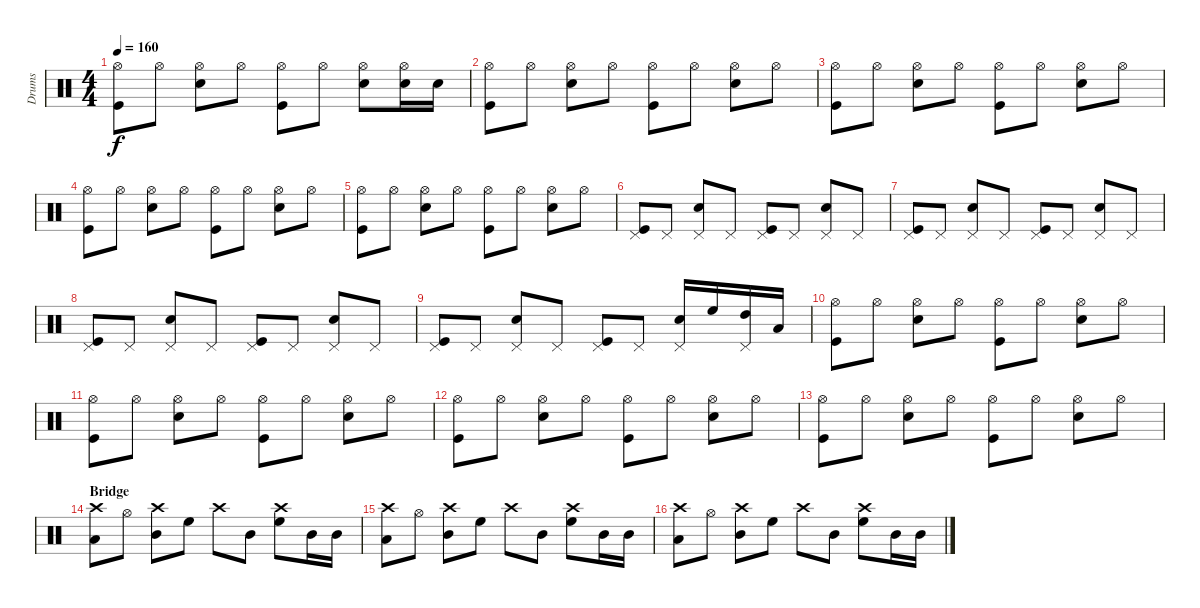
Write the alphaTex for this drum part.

\track ("Drums" "Drums") {instrument percussion}
\staff {score}
\articulation defaults
\ts (4 4)
\tempo 160
\clef neutral
\ks c
("Hi-Hat (open)" "Kick (hit)").8{dy f} "Hi-Hat (open)".8 ("Hi-Hat (open)" "Snare (hit) 2").8 "Hi-Hat (open)".8 ("Hi-Hat (open)" "Kick (hit)").8 "Hi-Hat (open)".8 ("Hi-Hat (open)" "Snare (hit) 2").8 ("Hi-Hat (open)" "Snare (hit) 2").16 "Snare (hit) 2".16 |
("Hi-Hat (open)" "Kick (hit)").8 "Hi-Hat (open)".8 ("Hi-Hat (open)" "Snare (hit) 2").8 "Hi-Hat (open)".8 ("Hi-Hat (open)" "Kick (hit)").8 "Hi-Hat (open)".8 ("Hi-Hat (open)" "Snare (hit) 2").8 "Hi-Hat (open)".8 |
("Hi-Hat (open)" "Kick (hit)").8 "Hi-Hat (open)".8 ("Hi-Hat (open)" "Snare (hit) 2").8 "Hi-Hat (open)".8 ("Hi-Hat (open)" "Kick (hit)").8 "Hi-Hat (open)".8 ("Hi-Hat (open)" "Snare (hit) 2").8 "Hi-Hat (open)".8 |
("Hi-Hat (open)" "Kick (hit)").8 "Hi-Hat (open)".8 ("Hi-Hat (open)" "Snare (hit) 2").8 "Hi-Hat (open)".8 ("Hi-Hat (open)" "Kick (hit)").8 "Hi-Hat (open)".8 ("Hi-Hat (open)" "Snare (hit) 2").8 "Hi-Hat (open)".8 |
("Hi-Hat (open)" "Kick (hit)").8 "Hi-Hat (open)".8 ("Hi-Hat (open)" "Snare (hit) 2").8 "Hi-Hat (open)".8 ("Hi-Hat (open)" "Kick (hit)").8 "Hi-Hat (open)".8 ("Hi-Hat (open)" "Snare (hit) 2").8 "Hi-Hat (open)".8 |
("Pedal Hi-Hat (hit)" "Kick (hit)").8 "Pedal Hi-Hat (hit)".8 ("Pedal Hi-Hat (hit)" "Snare (hit) 2").8 "Pedal Hi-Hat (hit)".8 ("Pedal Hi-Hat (hit)" "Kick (hit)").8 "Pedal Hi-Hat (hit)".8 ("Pedal Hi-Hat (hit)" "Snare (hit) 2").8 "Pedal Hi-Hat (hit)".8 |
("Pedal Hi-Hat (hit)" "Kick (hit)").8 "Pedal Hi-Hat (hit)".8 ("Pedal Hi-Hat (hit)" "Snare (hit) 2").8 "Pedal Hi-Hat (hit)".8 ("Pedal Hi-Hat (hit)" "Kick (hit)").8 "Pedal Hi-Hat (hit)".8 ("Pedal Hi-Hat (hit)" "Snare (hit) 2").8 "Pedal Hi-Hat (hit)".8 |
("Pedal Hi-Hat (hit)" "Kick (hit)").8 "Pedal Hi-Hat (hit)".8 ("Pedal Hi-Hat (hit)" "Snare (hit) 2").8 "Pedal Hi-Hat (hit)".8 ("Pedal Hi-Hat (hit)" "Kick (hit)").8 "Pedal Hi-Hat (hit)".8 ("Pedal Hi-Hat (hit)" "Snare (hit) 2").8 "Pedal Hi-Hat (hit)".8 |
("Pedal Hi-Hat (hit)" "Kick (hit)").8 "Pedal Hi-Hat (hit)".8 ("Pedal Hi-Hat (hit)" "Snare (hit) 2").8 "Pedal Hi-Hat (hit)".8 ("Pedal Hi-Hat (hit)" "Kick (hit)").8 "Pedal Hi-Hat (hit)".8 ("Pedal Hi-Hat (hit)" "Snare (hit) 2").16 "High Floor Tom (hit)".16 ("Pedal Hi-Hat (hit)" "High Tom (hit)").16 "Low Tom (hit)".16 |
("Hi-Hat (open)" "Kick (hit)").8 "Hi-Hat (open)".8 ("Hi-Hat (open)" "Snare (hit) 2").8 "Hi-Hat (open)".8 ("Hi-Hat (open)" "Kick (hit)").8 "Hi-Hat (open)".8 ("Hi-Hat (open)" "Snare (hit) 2").8 "Hi-Hat (open)".8 |
("Hi-Hat (open)" "Kick (hit)").8 "Hi-Hat (open)".8 ("Hi-Hat (open)" "Snare (hit) 2").8 "Hi-Hat (open)".8 ("Hi-Hat (open)" "Kick (hit)").8 "Hi-Hat (open)".8 ("Hi-Hat (open)" "Snare (hit) 2").8 "Hi-Hat (open)".8 |
("Hi-Hat (open)" "Kick (hit)").8 "Hi-Hat (open)".8 ("Hi-Hat (open)" "Snare (hit) 2").8 "Hi-Hat (open)".8 ("Hi-Hat (open)" "Kick (hit)").8 "Hi-Hat (open)".8 ("Hi-Hat (open)" "Snare (hit) 2").8 "Hi-Hat (open)".8 |
("Hi-Hat (open)" "Kick (hit)").8 "Hi-Hat (open)".8 ("Hi-Hat (open)" "Snare (hit) 2").8 "Hi-Hat (open)".8 ("Hi-Hat (open)" "Kick (hit)").8 "Hi-Hat (open)".8 ("Hi-Hat (open)" "Snare (hit) 2").8 "Hi-Hat (open)".8 |
\section ("" "Bridge")
("Crash high (hit)" "Low Tom (hit)").8 "Hi-Hat (open)".8 ("Crash high (hit)" "Mid Tom (hit)").8 "High Floor Tom (hit)".8 "Crash high (hit)".8 "Mid Tom (hit)".8 ("Crash high (hit)" "High Floor Tom (hit)").8 "Mid Tom (hit)".16 "Mid Tom (hit)".16 |
("Crash high (hit)" "Low Tom (hit)").8 "Hi-Hat (open)".8 ("Crash high (hit)" "Mid Tom (hit)").8 "High Floor Tom (hit)".8 "Crash high (hit)".8 "Mid Tom (hit)".8 ("Crash high (hit)" "High Floor Tom (hit)").8 "Mid Tom (hit)".16 "Mid Tom (hit)".16 |
("Crash high (hit)" "Low Tom (hit)").8 "Hi-Hat (open)".8 ("Crash high (hit)" "Mid Tom (hit)").8 "High Floor Tom (hit)".8 "Crash high (hit)".8 "Mid Tom (hit)".8 ("Crash high (hit)" "High Floor Tom (hit)").8 "Mid Tom (hit)".16 "Mid Tom (hit)".16
